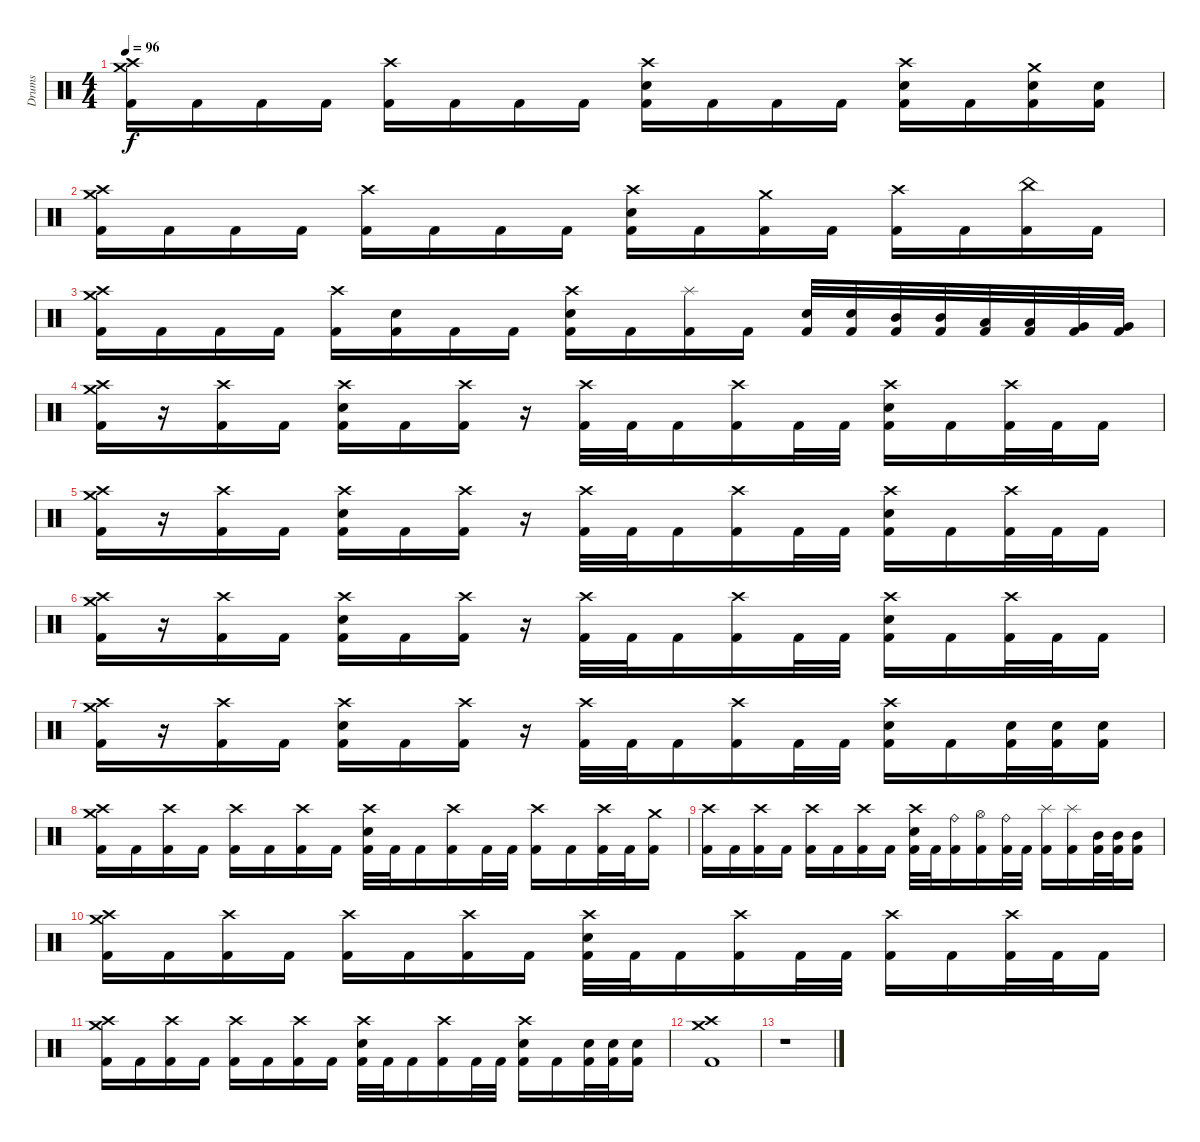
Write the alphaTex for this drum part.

\track ("Drums" "Drums") {instrument percussion}
\staff {score}
\articulation defaults
\ts (4 4)
\tempo 96
\clef neutral
\ks c
("Crash high (hit)" "Crash medium (hit)" "Kick (hit) 2").16{dy f} "Kick (hit) 2".16 "Kick (hit) 2".16 "Kick (hit) 2".16 ("Crash high (hit)" "Kick (hit) 2").16 "Kick (hit) 2".16 "Kick (hit) 2".16 "Kick (hit) 2".16 ("Crash high (hit)" "Electric Snare (hit)" "Kick (hit) 2").16 "Kick (hit) 2".16 "Kick (hit) 2".16 "Kick (hit) 2".16 ("Crash high (hit)" "Electric Snare (hit)" "Kick (hit) 2").16 "Kick (hit) 2".16 ("Crash medium (hit)" "Electric Snare (hit)" "Kick (hit) 2").16 ("Electric Snare (hit)" "Kick (hit) 2").16 |
("Crash high (hit)" "Crash medium (hit)" "Kick (hit) 2").16 "Kick (hit) 2".16 "Kick (hit) 2".16 "Kick (hit) 2".16 ("Crash high (hit)" "Kick (hit) 2").16 "Kick (hit) 2".16 "Kick (hit) 2".16 "Kick (hit) 2".16 ("Crash high (hit)" "Electric Snare (hit)" "Kick (hit) 2").16 "Kick (hit) 2".16 ("Crash medium (hit)" "Kick (hit) 2").16 "Kick (hit) 2".16 ("Crash high (hit)" "Kick (hit) 2").16 "Kick (hit) 2".16 ("China (hit)" "Kick (hit) 2").16 "Kick (hit) 2".16 |
("Crash high (hit)" "Crash medium (hit)" "Kick (hit) 2").16 "Kick (hit) 2".16 "Kick (hit) 2".16 "Kick (hit) 2".16 ("Crash high (hit)" "Kick (hit) 2").16 ("Electric Snare (hit)" "Kick (hit) 2").16 "Kick (hit) 2".16 "Kick (hit) 2".16 ("Crash high (hit)" "Electric Snare (hit)" "Kick (hit) 2").16 "Kick (hit) 2".16 ("Splash (hit)" "Kick (hit) 2").16 "Kick (hit) 2".16 ("Electric Snare (hit)" "Kick (hit) 2").32 ("Electric Snare (hit)" "Kick (hit) 2").32 ("Mid Tom (hit)" "Kick (hit) 2").32 ("Mid Tom (hit)" "Kick (hit) 2").32 ("Low Tom (hit)" "Kick (hit) 2").32 ("Low Tom (hit)" "Kick (hit) 2").32 ("Very Low Tom (hit)" "Kick (hit) 2").32 ("Very Low Tom (hit)" "Kick (hit) 2").32 |
("Crash high (hit)" "Crash medium (hit)" "Kick (hit) 2").16 r.16 ("Crash high (hit)" "Kick (hit) 2").16 "Kick (hit) 2".16 ("Crash high (hit)" "Electric Snare (hit)" "Kick (hit) 2").16 "Kick (hit) 2".16 ("Crash high (hit)" "Kick (hit) 2").16 r.16 ("Crash high (hit)" "Kick (hit) 2").32 "Kick (hit) 2".32 "Kick (hit) 2".16 ("Crash high (hit)" "Kick (hit) 2").16 "Kick (hit) 2".32 "Kick (hit) 2".32 ("Crash high (hit)" "Electric Snare (hit)" "Kick (hit) 2").16 "Kick (hit) 2".16 ("Crash high (hit)" "Kick (hit) 2").32 "Kick (hit) 2".32 "Kick (hit) 2".16 |
("Crash high (hit)" "Crash medium (hit)" "Kick (hit) 2").16 r.16 ("Crash high (hit)" "Kick (hit) 2").16 "Kick (hit) 2".16 ("Crash high (hit)" "Electric Snare (hit)" "Kick (hit) 2").16 "Kick (hit) 2".16 ("Crash high (hit)" "Kick (hit) 2").16 r.16 ("Crash high (hit)" "Kick (hit) 2").32 "Kick (hit) 2".32 "Kick (hit) 2".16 ("Crash high (hit)" "Kick (hit) 2").16 "Kick (hit) 2".32 "Kick (hit) 2".32 ("Crash high (hit)" "Electric Snare (hit)" "Kick (hit) 2").16 "Kick (hit) 2".16 ("Crash high (hit)" "Kick (hit) 2").32 "Kick (hit) 2".32 "Kick (hit) 2".16 |
("Crash high (hit)" "Crash medium (hit)" "Kick (hit) 2").16 r.16 ("Crash high (hit)" "Kick (hit) 2").16 "Kick (hit) 2".16 ("Crash high (hit)" "Electric Snare (hit)" "Kick (hit) 2").16 "Kick (hit) 2".16 ("Crash high (hit)" "Kick (hit) 2").16 r.16 ("Crash high (hit)" "Kick (hit) 2").32 "Kick (hit) 2".32 "Kick (hit) 2".16 ("Crash high (hit)" "Kick (hit) 2").16 "Kick (hit) 2".32 "Kick (hit) 2".32 ("Crash high (hit)" "Electric Snare (hit)" "Kick (hit) 2").16 "Kick (hit) 2".16 ("Crash high (hit)" "Kick (hit) 2").32 "Kick (hit) 2".32 "Kick (hit) 2".16 |
("Crash high (hit)" "Crash medium (hit)" "Kick (hit) 2").16 r.16 ("Crash high (hit)" "Kick (hit) 2").16 "Kick (hit) 2".16 ("Crash high (hit)" "Electric Snare (hit)" "Kick (hit) 2").16 "Kick (hit) 2".16 ("Crash high (hit)" "Kick (hit) 2").16 r.16 ("Crash high (hit)" "Kick (hit) 2").32 "Kick (hit) 2".32 "Kick (hit) 2".16 ("Crash high (hit)" "Kick (hit) 2").16 "Kick (hit) 2".32 "Kick (hit) 2".32 ("Crash high (hit)" "Electric Snare (hit)" "Kick (hit) 2").16 "Kick (hit) 2".16 ("Electric Snare (hit)" "Kick (hit) 2").32 ("Electric Snare (hit)" "Kick (hit) 2").32 ("Electric Snare (hit)" "Kick (hit) 2").16 |
("Crash high (hit)" "Crash medium (hit)" "Kick (hit) 2").16 "Kick (hit) 2".16 ("Crash high (hit)" "Kick (hit) 2").16 "Kick (hit) 2".16 ("Crash high (hit)" "Kick (hit) 2").16 "Kick (hit) 2".16 ("Crash high (hit)" "Kick (hit) 2").16 "Kick (hit) 2".16 ("Crash high (hit)" "Electric Snare (hit)" "Kick (hit) 2").32 "Kick (hit) 2".32 "Kick (hit) 2".16 ("Crash high (hit)" "Kick (hit) 2").16 "Kick (hit) 2".32 "Kick (hit) 2".32 ("Crash high (hit)" "Kick (hit) 2").16 "Kick (hit) 2".16 ("Crash high (hit)" "Kick (hit) 2").32 "Kick (hit) 2".32 ("Crash medium (hit)" "Kick (hit) 2").16 |
("Crash high (hit)" "Kick (hit) 2").16 "Kick (hit) 2".16 ("Crash high (hit)" "Kick (hit) 2").16 "Kick (hit) 2".16 ("Crash high (hit)" "Kick (hit) 2").16 "Kick (hit) 2".16 ("Crash high (hit)" "Kick (hit) 2").16 "Kick (hit) 2".16 ("Crash high (hit)" "Electric Snare (hit)" "Kick (hit) 2").32 "Kick (hit) 2".32 ("Ride (bell)" "Kick (hit) 2").16 ("Hi-Hat (open)" "Kick (hit) 2").16 ("Ride (bell)" "Kick (hit) 2").32 "Kick (hit) 2".32 ("Splash (hit)" "Kick (hit) 2").16 ("Splash (hit)" "Kick (hit) 2").16 ("Mid Tom (hit)" "Kick (hit) 2").32 ("Mid Tom (hit)" "Kick (hit) 2").32 ("Mid Tom (hit)" "Kick (hit) 2").16 |
("Crash high (hit)" "Crash medium (hit)" "Kick (hit) 2").16 "Kick (hit) 2".16 ("Crash high (hit)" "Kick (hit) 2").16 "Kick (hit) 2".16 ("Crash high (hit)" "Kick (hit) 2").16 "Kick (hit) 2".16 ("Crash high (hit)" "Kick (hit) 2").16 "Kick (hit) 2".16 ("Crash high (hit)" "Electric Snare (hit)" "Kick (hit) 2").32 "Kick (hit) 2".32 "Kick (hit) 2".16 ("Crash high (hit)" "Kick (hit) 2").16 "Kick (hit) 2".32 "Kick (hit) 2".32 ("Crash high (hit)" "Kick (hit) 2").16 "Kick (hit) 2".16 ("Crash high (hit)" "Kick (hit) 2").32 "Kick (hit) 2".32 "Kick (hit) 2".16 |
("Crash high (hit)" "Crash medium (hit)" "Kick (hit) 2").16 "Kick (hit) 2".16 ("Crash high (hit)" "Kick (hit) 2").16 "Kick (hit) 2".16 ("Crash high (hit)" "Kick (hit) 2").16 "Kick (hit) 2".16 ("Crash high (hit)" "Kick (hit) 2").16 "Kick (hit) 2".16 ("Crash high (hit)" "Electric Snare (hit)" "Kick (hit) 2").32 "Kick (hit) 2".32 "Kick (hit) 2".16 ("Crash high (hit)" "Kick (hit) 2").16 "Kick (hit) 2".32 "Kick (hit) 2".32 ("Crash high (hit)" "Electric Snare (hit)" "Kick (hit) 2").16 "Kick (hit) 2".16 ("Electric Snare (hit)" "Kick (hit) 2").32 ("Electric Snare (hit)" "Kick (hit) 2").32 ("Electric Snare (hit)" "Kick (hit) 2").16 |
("Crash medium (hit)" "Crash high (hit)" "Kick (hit) 2").1 |
r.1
